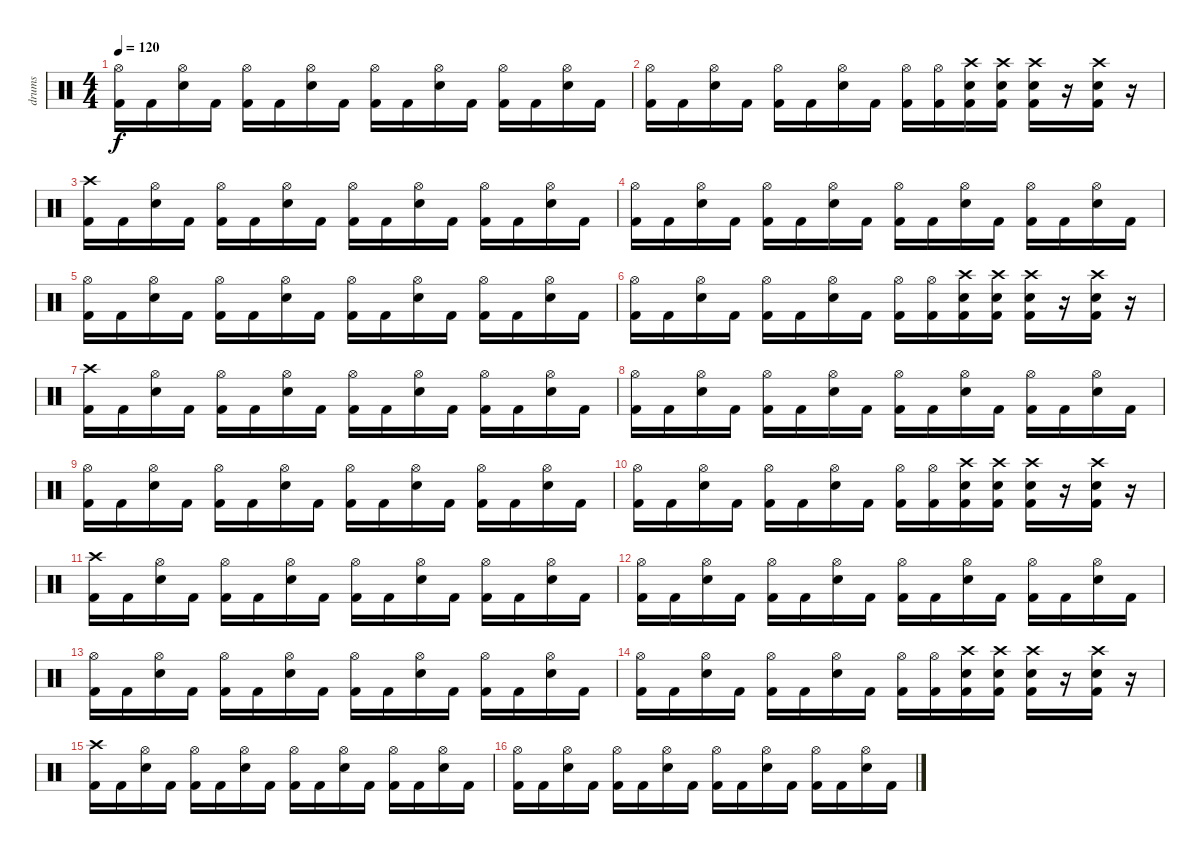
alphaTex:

\track ("drums" "drums") {instrument percussion}
\staff {score}
\articulation defaults
\ts (4 4)
\tempo 120
\clef neutral
\ks c
("Hi-Hat (open)" "Kick (hit) 2").16{dy f} "Kick (hit) 2".16 ("Hi-Hat (open)" "Electric Snare (hit)").16 "Kick (hit) 2".16 ("Hi-Hat (open)" "Kick (hit) 2").16 "Kick (hit) 2".16 ("Hi-Hat (open)" "Electric Snare (hit)").16 "Kick (hit) 2".16 ("Hi-Hat (open)" "Kick (hit) 2").16 "Kick (hit) 2".16 ("Hi-Hat (open)" "Electric Snare (hit)").16 "Kick (hit) 2".16 ("Hi-Hat (open)" "Kick (hit) 2").16 "Kick (hit) 2".16 ("Hi-Hat (open)" "Electric Snare (hit)").16 "Kick (hit) 2".16 |
("Hi-Hat (open)" "Kick (hit) 2").16 "Kick (hit) 2".16 ("Hi-Hat (open)" "Electric Snare (hit)").16 "Kick (hit) 2".16 ("Hi-Hat (open)" "Kick (hit) 2").16 "Kick (hit) 2".16 ("Hi-Hat (open)" "Electric Snare (hit)").16 "Kick (hit) 2".16 ("Hi-Hat (open)" "Kick (hit) 2").16 ("Hi-Hat (open)" "Kick (hit) 2").16 ("Crash high (hit)" "Kick (hit) 2" "Electric Snare (hit)").16 ("Crash high (hit)" "Kick (hit) 2" "Electric Snare (hit)").16 ("Crash high (hit)" "Kick (hit) 2" "Electric Snare (hit)").16 r.16 ("Crash high (hit)" "Kick (hit) 2" "Electric Snare (hit)").16 r.16 |
("Crash high (hit)" "Kick (hit) 2").16 "Kick (hit) 2".16 ("Hi-Hat (open)" "Electric Snare (hit)").16 "Kick (hit) 2".16 ("Hi-Hat (open)" "Kick (hit) 2").16 "Kick (hit) 2".16 ("Hi-Hat (open)" "Electric Snare (hit)").16 "Kick (hit) 2".16 ("Hi-Hat (open)" "Kick (hit) 2").16 "Kick (hit) 2".16 ("Hi-Hat (open)" "Electric Snare (hit)").16 "Kick (hit) 2".16 ("Hi-Hat (open)" "Kick (hit) 2").16 "Kick (hit) 2".16 ("Hi-Hat (open)" "Electric Snare (hit)").16 "Kick (hit) 2".16 |
("Hi-Hat (open)" "Kick (hit) 2").16 "Kick (hit) 2".16 ("Hi-Hat (open)" "Electric Snare (hit)").16 "Kick (hit) 2".16 ("Hi-Hat (open)" "Kick (hit) 2").16 "Kick (hit) 2".16 ("Hi-Hat (open)" "Electric Snare (hit)").16 "Kick (hit) 2".16 ("Hi-Hat (open)" "Kick (hit) 2").16 "Kick (hit) 2".16 ("Hi-Hat (open)" "Electric Snare (hit)").16 "Kick (hit) 2".16 ("Hi-Hat (open)" "Kick (hit) 2").16 "Kick (hit) 2".16 ("Hi-Hat (open)" "Electric Snare (hit)").16 "Kick (hit) 2".16 |
("Hi-Hat (open)" "Kick (hit) 2").16 "Kick (hit) 2".16 ("Hi-Hat (open)" "Electric Snare (hit)").16 "Kick (hit) 2".16 ("Hi-Hat (open)" "Kick (hit) 2").16 "Kick (hit) 2".16 ("Hi-Hat (open)" "Electric Snare (hit)").16 "Kick (hit) 2".16 ("Hi-Hat (open)" "Kick (hit) 2").16 "Kick (hit) 2".16 ("Hi-Hat (open)" "Electric Snare (hit)").16 "Kick (hit) 2".16 ("Hi-Hat (open)" "Kick (hit) 2").16 "Kick (hit) 2".16 ("Hi-Hat (open)" "Electric Snare (hit)").16 "Kick (hit) 2".16 |
("Hi-Hat (open)" "Kick (hit) 2").16 "Kick (hit) 2".16 ("Hi-Hat (open)" "Electric Snare (hit)").16 "Kick (hit) 2".16 ("Hi-Hat (open)" "Kick (hit) 2").16 "Kick (hit) 2".16 ("Hi-Hat (open)" "Electric Snare (hit)").16 "Kick (hit) 2".16 ("Hi-Hat (open)" "Kick (hit) 2").16 ("Hi-Hat (open)" "Kick (hit) 2").16 ("Crash high (hit)" "Kick (hit) 2" "Electric Snare (hit)").16 ("Crash high (hit)" "Kick (hit) 2" "Electric Snare (hit)").16 ("Crash high (hit)" "Kick (hit) 2" "Electric Snare (hit)").16 r.16 ("Crash high (hit)" "Kick (hit) 2" "Electric Snare (hit)").16 r.16 |
("Crash high (hit)" "Kick (hit) 2").16 "Kick (hit) 2".16 ("Hi-Hat (open)" "Electric Snare (hit)").16 "Kick (hit) 2".16 ("Hi-Hat (open)" "Kick (hit) 2").16 "Kick (hit) 2".16 ("Hi-Hat (open)" "Electric Snare (hit)").16 "Kick (hit) 2".16 ("Hi-Hat (open)" "Kick (hit) 2").16 "Kick (hit) 2".16 ("Hi-Hat (open)" "Electric Snare (hit)").16 "Kick (hit) 2".16 ("Hi-Hat (open)" "Kick (hit) 2").16 "Kick (hit) 2".16 ("Hi-Hat (open)" "Electric Snare (hit)").16 "Kick (hit) 2".16 |
("Hi-Hat (open)" "Kick (hit) 2").16 "Kick (hit) 2".16 ("Hi-Hat (open)" "Electric Snare (hit)").16 "Kick (hit) 2".16 ("Hi-Hat (open)" "Kick (hit) 2").16 "Kick (hit) 2".16 ("Hi-Hat (open)" "Electric Snare (hit)").16 "Kick (hit) 2".16 ("Hi-Hat (open)" "Kick (hit) 2").16 "Kick (hit) 2".16 ("Hi-Hat (open)" "Electric Snare (hit)").16 "Kick (hit) 2".16 ("Hi-Hat (open)" "Kick (hit) 2").16 "Kick (hit) 2".16 ("Hi-Hat (open)" "Electric Snare (hit)").16 "Kick (hit) 2".16 |
("Hi-Hat (open)" "Kick (hit) 2").16 "Kick (hit) 2".16 ("Hi-Hat (open)" "Electric Snare (hit)").16 "Kick (hit) 2".16 ("Hi-Hat (open)" "Kick (hit) 2").16 "Kick (hit) 2".16 ("Hi-Hat (open)" "Electric Snare (hit)").16 "Kick (hit) 2".16 ("Hi-Hat (open)" "Kick (hit) 2").16 "Kick (hit) 2".16 ("Hi-Hat (open)" "Electric Snare (hit)").16 "Kick (hit) 2".16 ("Hi-Hat (open)" "Kick (hit) 2").16 "Kick (hit) 2".16 ("Hi-Hat (open)" "Electric Snare (hit)").16 "Kick (hit) 2".16 |
("Hi-Hat (open)" "Kick (hit) 2").16 "Kick (hit) 2".16 ("Hi-Hat (open)" "Electric Snare (hit)").16 "Kick (hit) 2".16 ("Hi-Hat (open)" "Kick (hit) 2").16 "Kick (hit) 2".16 ("Hi-Hat (open)" "Electric Snare (hit)").16 "Kick (hit) 2".16 ("Hi-Hat (open)" "Kick (hit) 2").16 ("Hi-Hat (open)" "Kick (hit) 2").16 ("Crash high (hit)" "Kick (hit) 2" "Electric Snare (hit)").16 ("Crash high (hit)" "Kick (hit) 2" "Electric Snare (hit)").16 ("Crash high (hit)" "Kick (hit) 2" "Electric Snare (hit)").16 r.16 ("Crash high (hit)" "Kick (hit) 2" "Electric Snare (hit)").16 r.16 |
("Crash high (hit)" "Kick (hit) 2").16 "Kick (hit) 2".16 ("Hi-Hat (open)" "Electric Snare (hit)").16 "Kick (hit) 2".16 ("Hi-Hat (open)" "Kick (hit) 2").16 "Kick (hit) 2".16 ("Hi-Hat (open)" "Electric Snare (hit)").16 "Kick (hit) 2".16 ("Hi-Hat (open)" "Kick (hit) 2").16 "Kick (hit) 2".16 ("Hi-Hat (open)" "Electric Snare (hit)").16 "Kick (hit) 2".16 ("Hi-Hat (open)" "Kick (hit) 2").16 "Kick (hit) 2".16 ("Hi-Hat (open)" "Electric Snare (hit)").16 "Kick (hit) 2".16 |
("Hi-Hat (open)" "Kick (hit) 2").16 "Kick (hit) 2".16 ("Hi-Hat (open)" "Electric Snare (hit)").16 "Kick (hit) 2".16 ("Hi-Hat (open)" "Kick (hit) 2").16 "Kick (hit) 2".16 ("Hi-Hat (open)" "Electric Snare (hit)").16 "Kick (hit) 2".16 ("Hi-Hat (open)" "Kick (hit) 2").16 "Kick (hit) 2".16 ("Hi-Hat (open)" "Electric Snare (hit)").16 "Kick (hit) 2".16 ("Hi-Hat (open)" "Kick (hit) 2").16 "Kick (hit) 2".16 ("Hi-Hat (open)" "Electric Snare (hit)").16 "Kick (hit) 2".16 |
("Hi-Hat (open)" "Kick (hit) 2").16 "Kick (hit) 2".16 ("Hi-Hat (open)" "Electric Snare (hit)").16 "Kick (hit) 2".16 ("Hi-Hat (open)" "Kick (hit) 2").16 "Kick (hit) 2".16 ("Hi-Hat (open)" "Electric Snare (hit)").16 "Kick (hit) 2".16 ("Hi-Hat (open)" "Kick (hit) 2").16 "Kick (hit) 2".16 ("Hi-Hat (open)" "Electric Snare (hit)").16 "Kick (hit) 2".16 ("Hi-Hat (open)" "Kick (hit) 2").16 "Kick (hit) 2".16 ("Hi-Hat (open)" "Electric Snare (hit)").16 "Kick (hit) 2".16 |
("Hi-Hat (open)" "Kick (hit) 2").16 "Kick (hit) 2".16 ("Hi-Hat (open)" "Electric Snare (hit)").16 "Kick (hit) 2".16 ("Hi-Hat (open)" "Kick (hit) 2").16 "Kick (hit) 2".16 ("Hi-Hat (open)" "Electric Snare (hit)").16 "Kick (hit) 2".16 ("Hi-Hat (open)" "Kick (hit) 2").16 ("Hi-Hat (open)" "Kick (hit) 2").16 ("Crash high (hit)" "Kick (hit) 2" "Electric Snare (hit)").16 ("Crash high (hit)" "Kick (hit) 2" "Electric Snare (hit)").16 ("Crash high (hit)" "Kick (hit) 2" "Electric Snare (hit)").16 r.16 ("Crash high (hit)" "Kick (hit) 2" "Electric Snare (hit)").16 r.16 |
("Crash high (hit)" "Kick (hit) 2").16 "Kick (hit) 2".16 ("Hi-Hat (open)" "Electric Snare (hit)").16 "Kick (hit) 2".16 ("Hi-Hat (open)" "Kick (hit) 2").16 "Kick (hit) 2".16 ("Hi-Hat (open)" "Electric Snare (hit)").16 "Kick (hit) 2".16 ("Hi-Hat (open)" "Kick (hit) 2").16 "Kick (hit) 2".16 ("Hi-Hat (open)" "Electric Snare (hit)").16 "Kick (hit) 2".16 ("Hi-Hat (open)" "Kick (hit) 2").16 "Kick (hit) 2".16 ("Hi-Hat (open)" "Electric Snare (hit)").16 "Kick (hit) 2".16 |
("Hi-Hat (open)" "Kick (hit) 2").16 "Kick (hit) 2".16 ("Hi-Hat (open)" "Electric Snare (hit)").16 "Kick (hit) 2".16 ("Hi-Hat (open)" "Kick (hit) 2").16 "Kick (hit) 2".16 ("Hi-Hat (open)" "Electric Snare (hit)").16 "Kick (hit) 2".16 ("Hi-Hat (open)" "Kick (hit) 2").16 "Kick (hit) 2".16 ("Hi-Hat (open)" "Electric Snare (hit)").16 "Kick (hit) 2".16 ("Hi-Hat (open)" "Kick (hit) 2").16 "Kick (hit) 2".16 ("Hi-Hat (open)" "Electric Snare (hit)").16 "Kick (hit) 2".16
